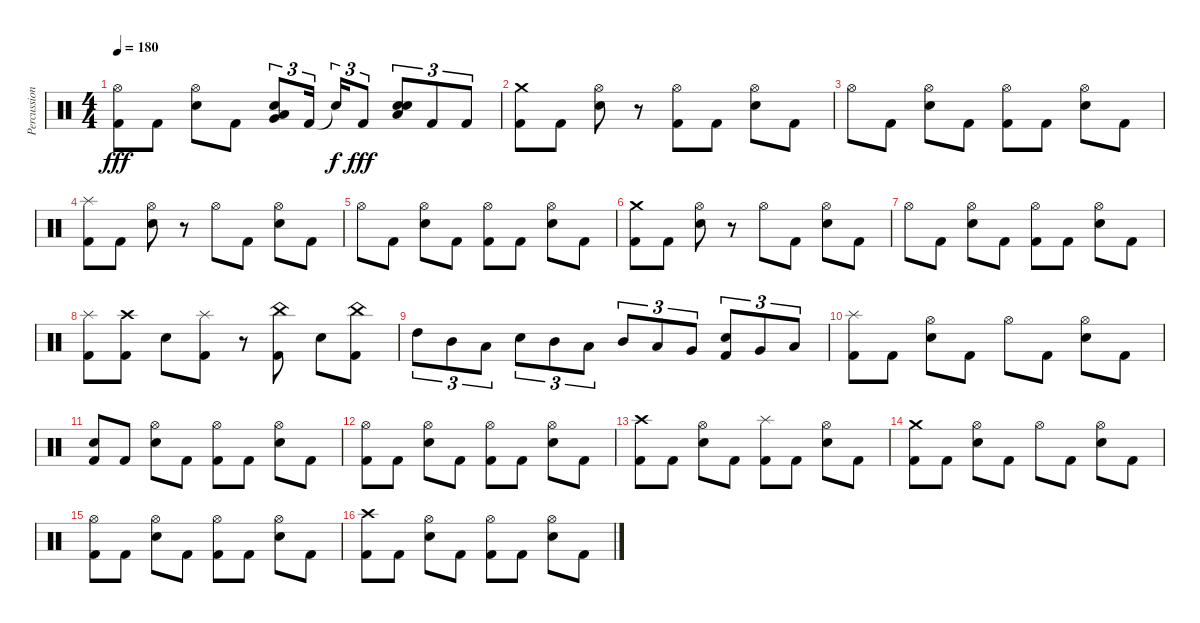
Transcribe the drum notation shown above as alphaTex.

\track ("Percussion" "Percussion") {instrument percussion}
\staff {score}
\articulation defaults
\ts (4 4)
\tempo 180
\clef neutral
\ks c
("Hi-Hat (open)" "Kick (hit) 2").8{dy fff} "Kick (hit) 2".8 ("Hi-Hat (open)" "Snare (hit) 2").8 "Kick (hit) 2".8 ("Low Floor Tom (hit)" "Very Low Tom (hit)" "Snare (hit)").8{tu (3 2)} "Kick (hit) 2".16{tu (3 2) beam splitsecondary} "Snare (hit)"{t}.16{tu (3 2) dy f} "Kick (hit) 2".8{tu (3 2) dy fff} ("Snare (hit) 2" "Low Floor Tom (hit)" "Snare (hit)").8{tu (3 2)} "Kick (hit) 2".8{tu (3 2)} "Kick (hit) 2".8{tu (3 2)} |
("Kick (hit) 2" "Crash medium (hit)").8 "Kick (hit) 2".8 ("Hi-Hat (open)" "Snare (hit) 2").8 r.8 ("Hi-Hat (open)" "Kick (hit) 2").8 "Kick (hit) 2".8 ("Hi-Hat (open)" "Snare (hit) 2").8 "Kick (hit) 2".8 |
"Hi-Hat (open)".8 "Kick (hit) 2".8 ("Hi-Hat (open)" "Snare (hit) 2").8 "Kick (hit) 2".8 ("Hi-Hat (open)" "Kick (hit) 2").8 "Kick (hit) 2".8 ("Hi-Hat (open)" "Snare (hit) 2").8 "Kick (hit) 2".8 |
("Kick (hit) 2" "Splash (hit)").8 "Kick (hit) 2".8 ("Hi-Hat (open)" "Snare (hit) 2").8 r.8 "Hi-Hat (open)".8 "Kick (hit) 2".8 ("Hi-Hat (open)" "Snare (hit) 2").8 "Kick (hit) 2".8 |
"Hi-Hat (open)".8 "Kick (hit) 2".8 ("Hi-Hat (open)" "Snare (hit) 2").8 "Kick (hit) 2".8 ("Hi-Hat (open)" "Kick (hit) 2").8 "Kick (hit) 2".8 ("Hi-Hat (open)" "Snare (hit) 2").8 "Kick (hit) 2".8 |
("Kick (hit) 2" "Crash medium (hit)").8 "Kick (hit) 2".8 ("Hi-Hat (open)" "Snare (hit) 2").8 r.8 "Hi-Hat (open)".8 "Kick (hit) 2".8 ("Hi-Hat (open)" "Snare (hit) 2").8 "Kick (hit) 2".8 |
"Hi-Hat (open)".8 "Kick (hit) 2".8 ("Hi-Hat (open)" "Snare (hit) 2").8 "Kick (hit) 2".8 ("Hi-Hat (open)" "Kick (hit) 2").8 "Kick (hit) 2".8 ("Hi-Hat (open)" "Snare (hit) 2").8 "Kick (hit) 2".8 |
("Kick (hit) 2" "Splash (hit)").8 ("Kick (hit) 2" "Crash high (hit)").8 "Snare (hit) 2".8 ("Kick (hit) 2" "Splash (hit)").8 r.8 ("Kick (hit) 2" "China (hit)").8 "Snare (hit) 2".8 ("Kick (hit) 2" "China (hit)").8 |
"High Tom (hit)".8{tu (3 2)} "Mid Tom (hit)".8{tu (3 2)} "Low Tom (hit)".8{tu (3 2)} "Snare (hit) 2".8{tu (3 2)} "Mid Tom (hit)".8{tu (3 2)} "Low Tom (hit)".8{tu (3 2)} "Mid Tom (hit)".8{tu (3 2)} "Low Tom (hit)".8{tu (3 2)} "Very Low Tom (hit)".8{tu (3 2)} ("Kick (hit) 2" "Snare (hit) 2").8{tu (3 2)} "Very Low Tom (hit)".8{tu (3 2)} "Low Floor Tom (hit)".8{tu (3 2)} |
("Kick (hit) 2" "Splash (hit)").8 "Kick (hit) 2".8 ("Hi-Hat (open)" "Snare (hit) 2").8 "Kick (hit) 2".8 "Hi-Hat (open)".8 "Kick (hit) 2".8 ("Hi-Hat (open)" "Snare (hit) 2").8 "Kick (hit) 2".8 |
("Kick (hit) 2" "Snare (hit)").8 "Kick (hit) 2".8 ("Hi-Hat (open)" "Snare (hit) 2").8 "Kick (hit) 2".8 ("Hi-Hat (open)" "Kick (hit) 2").8 "Kick (hit) 2".8 ("Hi-Hat (open)" "Snare (hit) 2").8 "Kick (hit) 2".8 |
("Hi-Hat (open)" "Kick (hit) 2").8 "Kick (hit) 2".8 ("Hi-Hat (open)" "Snare (hit) 2").8 "Kick (hit) 2".8 ("Hi-Hat (open)" "Kick (hit) 2").8 "Kick (hit) 2".8 ("Hi-Hat (open)" "Snare (hit) 2").8 "Kick (hit) 2".8 |
("Kick (hit) 2" "Crash high (hit)").8 "Kick (hit) 2".8 ("Hi-Hat (open)" "Snare (hit) 2").8 "Kick (hit) 2".8 ("Kick (hit) 2" "Splash (hit)").8 "Kick (hit) 2".8 ("Hi-Hat (open)" "Snare (hit) 2").8 "Kick (hit) 2".8 |
("Kick (hit) 2" "Crash medium (hit)").8 "Kick (hit) 2".8 ("Hi-Hat (open)" "Snare (hit) 2").8 "Kick (hit) 2".8 "Hi-Hat (open)".8 "Kick (hit) 2".8 ("Hi-Hat (open)" "Snare (hit) 2").8 "Kick (hit) 2".8 |
("Hi-Hat (open)" "Kick (hit) 2").8 "Kick (hit) 2".8 ("Hi-Hat (open)" "Snare (hit) 2").8 "Kick (hit) 2".8 ("Hi-Hat (open)" "Kick (hit) 2").8 "Kick (hit) 2".8 ("Hi-Hat (open)" "Snare (hit) 2").8 "Kick (hit) 2".8 |
("Kick (hit) 2" "Crash high (hit)").8 "Kick (hit) 2".8 ("Hi-Hat (open)" "Snare (hit) 2").8 "Kick (hit) 2".8 ("Hi-Hat (open)" "Kick (hit) 2").8 "Kick (hit) 2".8 ("Hi-Hat (open)" "Snare (hit) 2").8 "Kick (hit) 2".8
